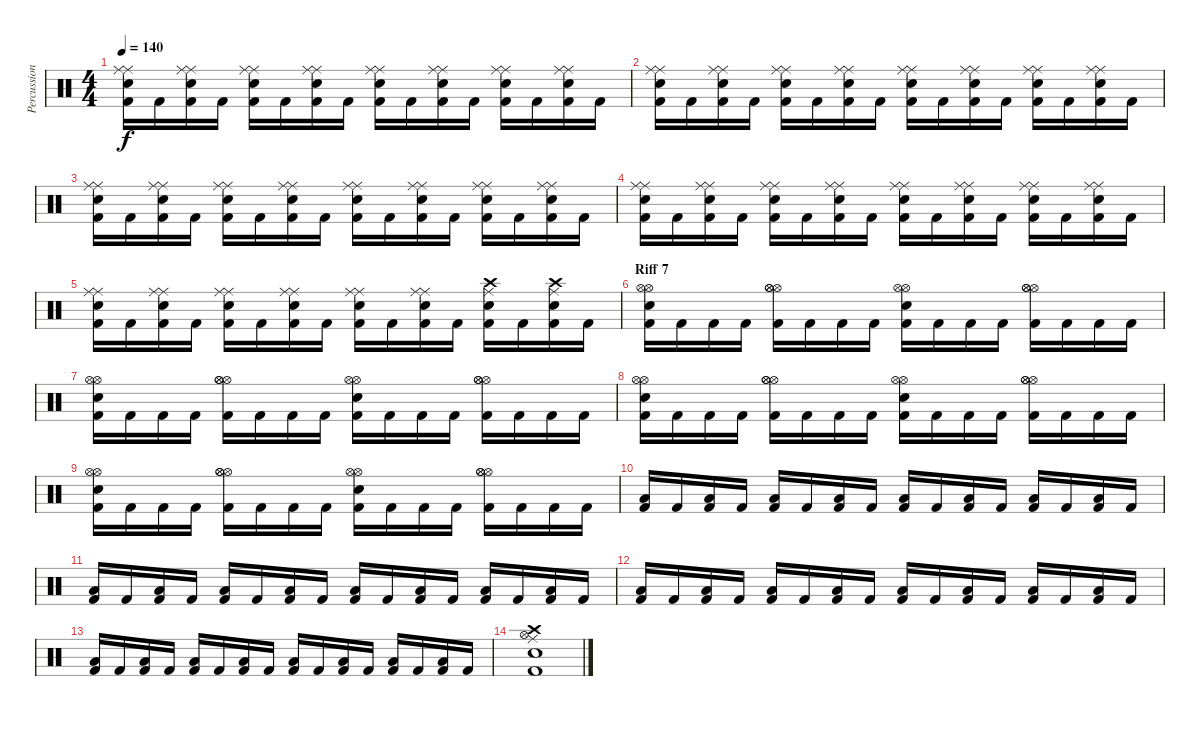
\track ("Percussion" "Percussion") {instrument percussion}
\staff {score}
\articulation defaults
\ts (4 4)
\tempo 140
\clef neutral
\ks c
("Ride (middle)" "Ride (middle)" "Electric Snare (hit)" "Kick (hit) 2").16{dy f} "Kick (hit) 2".16 ("Ride (middle)" "Ride (middle)" "Electric Snare (hit)" "Kick (hit) 2").16 "Kick (hit) 2".16 ("Ride (middle)" "Ride (middle)" "Electric Snare (hit)" "Kick (hit) 2").16 "Kick (hit) 2".16 ("Ride (middle)" "Ride (middle)" "Electric Snare (hit)" "Kick (hit) 2").16 "Kick (hit) 2".16 ("Ride (middle)" "Ride (middle)" "Electric Snare (hit)" "Kick (hit) 2").16 "Kick (hit) 2".16 ("Ride (middle)" "Ride (middle)" "Electric Snare (hit)" "Kick (hit) 2").16 "Kick (hit) 2".16 ("Ride (middle)" "Ride (middle)" "Electric Snare (hit)" "Kick (hit) 2").16 "Kick (hit) 2".16 ("Ride (middle)" "Ride (middle)" "Electric Snare (hit)" "Kick (hit) 2").16 "Kick (hit) 2".16 |
("Ride (middle)" "Ride (middle)" "Electric Snare (hit)" "Kick (hit) 2").16 "Kick (hit) 2".16 ("Ride (middle)" "Ride (middle)" "Electric Snare (hit)" "Kick (hit) 2").16 "Kick (hit) 2".16 ("Ride (middle)" "Ride (middle)" "Electric Snare (hit)" "Kick (hit) 2").16 "Kick (hit) 2".16 ("Ride (middle)" "Ride (middle)" "Electric Snare (hit)" "Kick (hit) 2").16 "Kick (hit) 2".16 ("Ride (middle)" "Ride (middle)" "Electric Snare (hit)" "Kick (hit) 2").16 "Kick (hit) 2".16 ("Ride (middle)" "Ride (middle)" "Electric Snare (hit)" "Kick (hit) 2").16 "Kick (hit) 2".16 ("Ride (middle)" "Ride (middle)" "Electric Snare (hit)" "Kick (hit) 2").16 "Kick (hit) 2".16 ("Ride (middle)" "Ride (middle)" "Electric Snare (hit)" "Kick (hit) 2").16 "Kick (hit) 2".16 |
("Ride (middle)" "Ride (middle)" "Electric Snare (hit)" "Kick (hit) 2").16 "Kick (hit) 2".16 ("Ride (middle)" "Ride (middle)" "Electric Snare (hit)" "Kick (hit) 2").16 "Kick (hit) 2".16 ("Ride (middle)" "Ride (middle)" "Electric Snare (hit)" "Kick (hit) 2").16 "Kick (hit) 2".16 ("Ride (middle)" "Ride (middle)" "Electric Snare (hit)" "Kick (hit) 2").16 "Kick (hit) 2".16 ("Ride (middle)" "Ride (middle)" "Electric Snare (hit)" "Kick (hit) 2").16 "Kick (hit) 2".16 ("Ride (middle)" "Ride (middle)" "Electric Snare (hit)" "Kick (hit) 2").16 "Kick (hit) 2".16 ("Ride (middle)" "Ride (middle)" "Electric Snare (hit)" "Kick (hit) 2").16 "Kick (hit) 2".16 ("Ride (middle)" "Ride (middle)" "Electric Snare (hit)" "Kick (hit) 2").16 "Kick (hit) 2".16 |
("Ride (middle)" "Ride (middle)" "Electric Snare (hit)" "Kick (hit) 2").16 "Kick (hit) 2".16 ("Ride (middle)" "Ride (middle)" "Electric Snare (hit)" "Kick (hit) 2").16 "Kick (hit) 2".16 ("Ride (middle)" "Ride (middle)" "Electric Snare (hit)" "Kick (hit) 2").16 "Kick (hit) 2".16 ("Ride (middle)" "Ride (middle)" "Electric Snare (hit)" "Kick (hit) 2").16 "Kick (hit) 2".16 ("Ride (middle)" "Ride (middle)" "Electric Snare (hit)" "Kick (hit) 2").16 "Kick (hit) 2".16 ("Ride (middle)" "Ride (middle)" "Electric Snare (hit)" "Kick (hit) 2").16 "Kick (hit) 2".16 ("Ride (middle)" "Ride (middle)" "Electric Snare (hit)" "Kick (hit) 2").16 "Kick (hit) 2".16 ("Ride (middle)" "Ride (middle)" "Electric Snare (hit)" "Kick (hit) 2").16 "Kick (hit) 2".16 |
("Ride (middle)" "Ride (middle)" "Electric Snare (hit)" "Kick (hit) 2").16 "Kick (hit) 2".16 ("Ride (middle)" "Ride (middle)" "Electric Snare (hit)" "Kick (hit) 2").16 "Kick (hit) 2".16 ("Ride (middle)" "Ride (middle)" "Electric Snare (hit)" "Kick (hit) 2").16 "Kick (hit) 2".16 ("Ride (middle)" "Ride (middle)" "Electric Snare (hit)" "Kick (hit) 2").16 "Kick (hit) 2".16 ("Ride (middle)" "Ride (middle)" "Electric Snare (hit)" "Kick (hit) 2").16 "Kick (hit) 2".16 ("Ride (middle)" "Ride (middle)" "Electric Snare (hit)" "Kick (hit) 2").16 "Kick (hit) 2".16 ("Ride (middle)" "Crash high (hit)" "Electric Snare (hit)" "Kick (hit) 2").16 "Kick (hit) 2".16 ("Ride (middle)" "Crash high (hit)" "Electric Snare (hit)" "Kick (hit) 2").16 "Kick (hit) 2".16 |
\section ("" "Riff 7")
("Hi-Hat (open)" "Hi-Hat (open)" "Electric Snare (hit)" "Kick (hit) 2").16 "Kick (hit) 2".16 "Kick (hit) 2".16 "Kick (hit) 2".16 ("Hi-Hat (open)" "Hi-Hat (open)" "Hi-Hat (open)" "Kick (hit) 2").16 "Kick (hit) 2".16 "Kick (hit) 2".16 "Kick (hit) 2".16 ("Hi-Hat (open)" "Hi-Hat (open)" "Electric Snare (hit)" "Kick (hit) 2").16 "Kick (hit) 2".16 "Kick (hit) 2".16 "Kick (hit) 2".16 ("Hi-Hat (open)" "Hi-Hat (open)" "Hi-Hat (open)" "Kick (hit) 2").16 "Kick (hit) 2".16 "Kick (hit) 2".16 "Kick (hit) 2".16 |
("Hi-Hat (open)" "Hi-Hat (open)" "Electric Snare (hit)" "Kick (hit) 2").16 "Kick (hit) 2".16 "Kick (hit) 2".16 "Kick (hit) 2".16 ("Hi-Hat (open)" "Hi-Hat (open)" "Hi-Hat (open)" "Kick (hit) 2").16 "Kick (hit) 2".16 "Kick (hit) 2".16 "Kick (hit) 2".16 ("Hi-Hat (open)" "Hi-Hat (open)" "Electric Snare (hit)" "Kick (hit) 2").16 "Kick (hit) 2".16 "Kick (hit) 2".16 "Kick (hit) 2".16 ("Hi-Hat (open)" "Hi-Hat (open)" "Hi-Hat (open)" "Kick (hit) 2").16 "Kick (hit) 2".16 "Kick (hit) 2".16 "Kick (hit) 2".16 |
("Hi-Hat (open)" "Hi-Hat (open)" "Electric Snare (hit)" "Kick (hit) 2").16 "Kick (hit) 2".16 "Kick (hit) 2".16 "Kick (hit) 2".16 ("Hi-Hat (open)" "Hi-Hat (open)" "Hi-Hat (open)" "Kick (hit) 2").16 "Kick (hit) 2".16 "Kick (hit) 2".16 "Kick (hit) 2".16 ("Hi-Hat (open)" "Hi-Hat (open)" "Electric Snare (hit)" "Kick (hit) 2").16 "Kick (hit) 2".16 "Kick (hit) 2".16 "Kick (hit) 2".16 ("Hi-Hat (open)" "Hi-Hat (open)" "Hi-Hat (open)" "Kick (hit) 2").16 "Kick (hit) 2".16 "Kick (hit) 2".16 "Kick (hit) 2".16 |
("Hi-Hat (open)" "Hi-Hat (open)" "Electric Snare (hit)" "Kick (hit) 2").16 "Kick (hit) 2".16 "Kick (hit) 2".16 "Kick (hit) 2".16 ("Hi-Hat (open)" "Hi-Hat (open)" "Hi-Hat (open)" "Kick (hit) 2").16 "Kick (hit) 2".16 "Kick (hit) 2".16 "Kick (hit) 2".16 ("Hi-Hat (open)" "Hi-Hat (open)" "Electric Snare (hit)" "Kick (hit) 2").16 "Kick (hit) 2".16 "Kick (hit) 2".16 "Kick (hit) 2".16 ("Hi-Hat (open)" "Hi-Hat (open)" "Hi-Hat (open)" "Kick (hit) 2").16 "Kick (hit) 2".16 "Kick (hit) 2".16 "Kick (hit) 2".16 |
("Low Tom (hit)" "Kick (hit) 2").16 "Kick (hit) 2".16 ("Low Tom (hit)" "Kick (hit) 2").16 "Kick (hit) 2".16 ("Low Tom (hit)" "Kick (hit) 2").16 "Kick (hit) 2".16 ("Low Tom (hit)" "Kick (hit) 2").16 "Kick (hit) 2".16 ("Low Tom (hit)" "Kick (hit) 2").16 "Kick (hit) 2".16 ("Low Tom (hit)" "Kick (hit) 2").16 "Kick (hit) 2".16 ("Low Tom (hit)" "Kick (hit) 2").16 "Kick (hit) 2".16 ("Low Tom (hit)" "Kick (hit) 2").16 "Kick (hit) 2".16 |
("Low Tom (hit)" "Kick (hit) 2").16 "Kick (hit) 2".16 ("Low Tom (hit)" "Kick (hit) 2").16 "Kick (hit) 2".16 ("Low Tom (hit)" "Kick (hit) 2").16 "Kick (hit) 2".16 ("Low Tom (hit)" "Kick (hit) 2").16 "Kick (hit) 2".16 ("Low Tom (hit)" "Kick (hit) 2").16 "Kick (hit) 2".16 ("Low Tom (hit)" "Kick (hit) 2").16 "Kick (hit) 2".16 ("Low Tom (hit)" "Kick (hit) 2").16 "Kick (hit) 2".16 ("Low Tom (hit)" "Kick (hit) 2").16 "Kick (hit) 2".16 |
("Low Tom (hit)" "Kick (hit) 2").16 "Kick (hit) 2".16 ("Low Tom (hit)" "Kick (hit) 2").16 "Kick (hit) 2".16 ("Low Tom (hit)" "Kick (hit) 2").16 "Kick (hit) 2".16 ("Low Tom (hit)" "Kick (hit) 2").16 "Kick (hit) 2".16 ("Low Tom (hit)" "Kick (hit) 2").16 "Kick (hit) 2".16 ("Low Tom (hit)" "Kick (hit) 2").16 "Kick (hit) 2".16 ("Low Tom (hit)" "Kick (hit) 2").16 "Kick (hit) 2".16 ("Low Tom (hit)" "Kick (hit) 2").16 "Kick (hit) 2".16 |
("Low Tom (hit)" "Kick (hit) 2").16 "Kick (hit) 2".16 ("Low Tom (hit)" "Kick (hit) 2").16 "Kick (hit) 2".16 ("Low Tom (hit)" "Kick (hit) 2").16 "Kick (hit) 2".16 ("Low Tom (hit)" "Kick (hit) 2").16 "Kick (hit) 2".16 ("Low Tom (hit)" "Kick (hit) 2").16 "Kick (hit) 2".16 ("Low Tom (hit)" "Kick (hit) 2").16 "Kick (hit) 2".16 ("Low Tom (hit)" "Kick (hit) 2").16 "Kick (hit) 2".16 ("Low Tom (hit)" "Kick (hit) 2").16 "Kick (hit) 2".16 |
("Ride (middle)" "Crash high (hit)" "Hi-Hat (open)" "Electric Snare (hit)" "Kick (hit) 2").1
